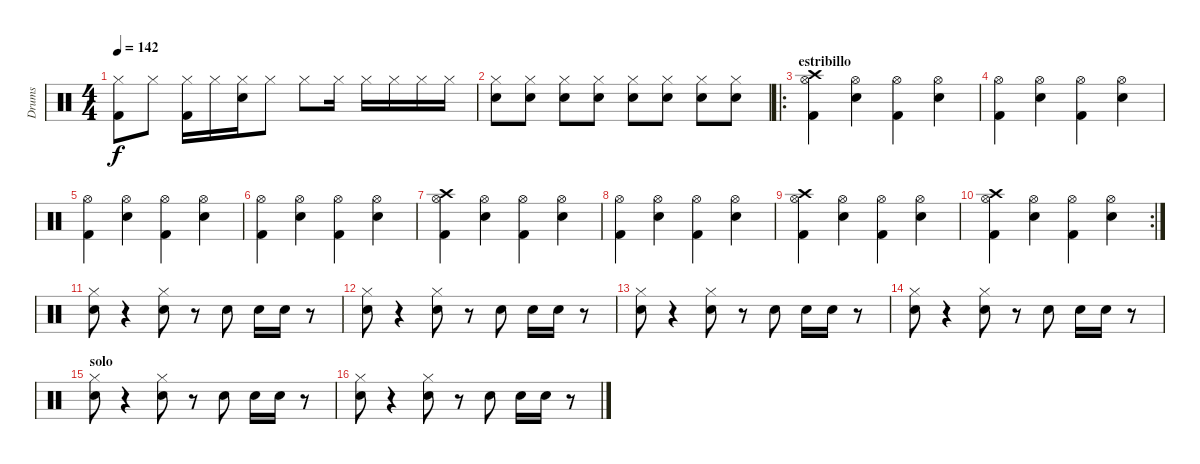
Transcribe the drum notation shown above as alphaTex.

\track ("Drums" "Drums") {instrument percussion}
\staff {score}
\articulation defaults
\ts (4 4)
\tempo 142
\clef neutral
\ks c
("Kick (hit) 2" "Hi-Hat (closed)").8{dy f} "Hi-Hat (closed)".8 ("Kick (hit) 2" "Hi-Hat (closed)").16 "Hi-Hat (closed)".16 ("Snare (hit) 2" "Hi-Hat (closed)").16 "Hi-Hat (closed)".8 "Hi-Hat (closed)".8 "Hi-Hat (closed)".16 "Hi-Hat (closed)".16 "Hi-Hat (closed)".16 "Hi-Hat (closed)".16 "Hi-Hat (closed)".16 |
("Snare (hit) 2" "Hi-Hat (closed)").8 ("Snare (hit) 2" "Hi-Hat (closed)").8 ("Snare (hit) 2" "Hi-Hat (closed)").8 ("Snare (hit) 2" "Hi-Hat (closed)").8 ("Snare (hit) 2" "Hi-Hat (closed)").8 ("Snare (hit) 2" "Hi-Hat (closed)").8 ("Snare (hit) 2" "Hi-Hat (closed)").8 ("Snare (hit) 2" "Hi-Hat (closed)").8 |
\ro
\section ("" "estribillo")
("Kick (hit) 2" "Hi-Hat (open)" "Crash high (hit)").4 ("Snare (hit) 2" "Hi-Hat (open)").4 ("Kick (hit) 2" "Hi-Hat (open)").4 ("Snare (hit) 2" "Hi-Hat (open)").4 |
("Kick (hit) 2" "Hi-Hat (open)").4 ("Snare (hit) 2" "Hi-Hat (open)").4 ("Kick (hit) 2" "Hi-Hat (open)").4 ("Snare (hit) 2" "Hi-Hat (open)").4 |
("Kick (hit) 2" "Hi-Hat (open)").4 ("Snare (hit) 2" "Hi-Hat (open)").4 ("Kick (hit) 2" "Hi-Hat (open)").4 ("Snare (hit) 2" "Hi-Hat (open)").4 |
("Kick (hit) 2" "Hi-Hat (open)").4 ("Snare (hit) 2" "Hi-Hat (open)").4 ("Kick (hit) 2" "Hi-Hat (open)").4 ("Snare (hit) 2" "Hi-Hat (open)").4 |
("Kick (hit) 2" "Hi-Hat (open)" "Crash high (hit)").4 ("Snare (hit) 2" "Hi-Hat (open)").4 ("Kick (hit) 2" "Hi-Hat (open)").4 ("Snare (hit) 2" "Hi-Hat (open)").4 |
("Kick (hit) 2" "Hi-Hat (open)").4 ("Snare (hit) 2" "Hi-Hat (open)").4 ("Kick (hit) 2" "Hi-Hat (open)").4 ("Snare (hit) 2" "Hi-Hat (open)").4 |
("Kick (hit) 2" "Hi-Hat (open)" "Crash high (hit)").4 ("Snare (hit) 2" "Hi-Hat (open)").4 ("Kick (hit) 2" "Hi-Hat (open)").4 ("Snare (hit) 2" "Hi-Hat (open)").4 |
\rc 2
("Kick (hit) 2" "Hi-Hat (open)" "Crash high (hit)").4 ("Snare (hit) 2" "Hi-Hat (open)").4 ("Kick (hit) 2" "Hi-Hat (open)").4 ("Snare (hit) 2" "Hi-Hat (open)").4 |
("Snare (hit) 2" "Hi-Hat (closed)").8 r.4 ("Snare (hit) 2" "Hi-Hat (closed)").8 r.8 "Snare (hit) 2".8 "Snare (hit) 2".16 "Snare (hit) 2".16 r.8 |
("Snare (hit) 2" "Hi-Hat (closed)").8 r.4 ("Snare (hit) 2" "Hi-Hat (closed)").8 r.8 "Snare (hit) 2".8 "Snare (hit) 2".16 "Snare (hit) 2".16 r.8 |
("Snare (hit) 2" "Hi-Hat (closed)").8 r.4 ("Snare (hit) 2" "Hi-Hat (closed)").8 r.8 "Snare (hit) 2".8 "Snare (hit) 2".16 "Snare (hit) 2".16 r.8 |
("Snare (hit) 2" "Hi-Hat (closed)").8 r.4 ("Snare (hit) 2" "Hi-Hat (closed)").8 r.8 "Snare (hit) 2".8 "Snare (hit) 2".16 "Snare (hit) 2".16 r.8 |
\section ("" "solo")
("Snare (hit) 2" "Hi-Hat (closed)").8 r.4 ("Snare (hit) 2" "Hi-Hat (closed)").8 r.8 "Snare (hit) 2".8 "Snare (hit) 2".16 "Snare (hit) 2".16 r.8 |
("Snare (hit) 2" "Hi-Hat (closed)").8 r.4 ("Snare (hit) 2" "Hi-Hat (closed)").8 r.8 "Snare (hit) 2".8 "Snare (hit) 2".16 "Snare (hit) 2".16 r.8
